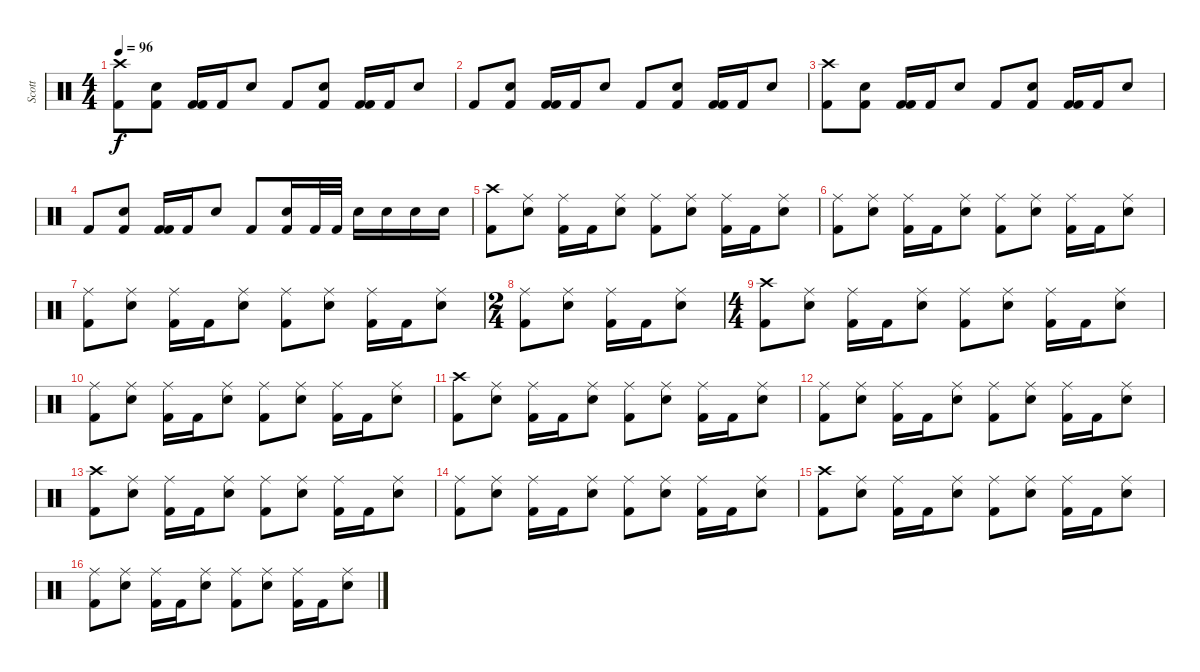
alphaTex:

\track ("Scott" "Scott") {instrument percussion}
\staff {score}
\articulation defaults
\ts (4 4)
\tempo 96
\clef neutral
\ks c
("Kick (hit) 2" "Crash high (hit)").8{dy f} ("Kick (hit) 2" "Snare (hit) 2").8 ("Kick (hit) 2" "Kick (hit) 2").16 "Kick (hit) 2".16 "Snare (hit) 2".8 "Kick (hit) 2".8 ("Kick (hit) 2" "Snare (hit) 2").8 ("Kick (hit) 2" "Kick (hit) 2").16 "Kick (hit) 2".16 "Snare (hit) 2".8 |
"Kick (hit) 2".8 ("Kick (hit) 2" "Snare (hit) 2").8 ("Kick (hit) 2" "Kick (hit) 2").16 "Kick (hit) 2".16 "Snare (hit) 2".8 "Kick (hit) 2".8 ("Kick (hit) 2" "Snare (hit) 2").8 ("Kick (hit) 2" "Kick (hit) 2").16 "Kick (hit) 2".16 "Snare (hit) 2".8 |
("Kick (hit) 2" "Crash high (hit)").8 ("Kick (hit) 2" "Snare (hit) 2").8 ("Kick (hit) 2" "Kick (hit) 2").16 "Kick (hit) 2".16 "Snare (hit) 2".8 "Kick (hit) 2".8 ("Kick (hit) 2" "Snare (hit) 2").8 ("Kick (hit) 2" "Kick (hit) 2").16 "Kick (hit) 2".16 "Snare (hit) 2".8 |
"Kick (hit) 2".8 ("Kick (hit) 2" "Snare (hit) 2").8 ("Kick (hit) 2" "Kick (hit) 2").16 "Kick (hit) 2".16 "Snare (hit) 2".8 "Kick (hit) 2".8 ("Kick (hit) 2" "Snare (hit) 2").16 "Kick (hit) 2".32 "Kick (hit) 2".32 "Snare (hit) 2".16 "Snare (hit) 2".16 "Snare (hit) 2".16 "Snare (hit) 2".16 |
("Kick (hit) 2" "Crash high (hit)").8 ("Ride (middle)" "Snare (hit) 2").8 ("Ride (middle)" "Kick (hit) 2").16 "Kick (hit) 2".16 ("Snare (hit) 2" "Ride (middle)").8 ("Kick (hit) 2" "Ride (middle)").8 ("Ride (middle)" "Snare (hit) 2").8 ("Ride (middle)" "Kick (hit) 2").16 "Kick (hit) 2".16 ("Snare (hit) 2" "Ride (middle)").8 |
("Kick (hit) 2" "Ride (middle)").8 ("Ride (middle)" "Snare (hit) 2").8 ("Ride (middle)" "Kick (hit) 2").16 "Kick (hit) 2".16 ("Snare (hit) 2" "Ride (middle)").8 ("Kick (hit) 2" "Ride (middle)").8 ("Ride (middle)" "Snare (hit) 2").8 ("Ride (middle)" "Kick (hit) 2").16 "Kick (hit) 2".16 ("Snare (hit) 2" "Ride (middle)").8 |
("Kick (hit) 2" "Ride (middle)").8 ("Ride (middle)" "Snare (hit) 2").8 ("Ride (middle)" "Kick (hit) 2").16 "Kick (hit) 2".16 ("Snare (hit) 2" "Ride (middle)").8 ("Kick (hit) 2" "Ride (middle)").8 ("Ride (middle)" "Snare (hit) 2").8 ("Ride (middle)" "Kick (hit) 2").16 "Kick (hit) 2".16 ("Snare (hit) 2" "Ride (middle)").8 |
\ts (2 4)
("Kick (hit) 2" "Ride (middle)").8 ("Ride (middle)" "Snare (hit) 2").8 ("Ride (middle)" "Kick (hit) 2").16 "Kick (hit) 2".16 ("Snare (hit) 2" "Ride (middle)").8 |
\ts (4 4)
("Kick (hit) 2" "Crash high (hit)").8 ("Ride (middle)" "Snare (hit) 2").8 ("Ride (middle)" "Kick (hit) 2").16 "Kick (hit) 2".16 ("Snare (hit) 2" "Ride (middle)").8 ("Kick (hit) 2" "Ride (middle)").8 ("Ride (middle)" "Snare (hit) 2").8 ("Ride (middle)" "Kick (hit) 2").16 "Kick (hit) 2".16 ("Snare (hit) 2" "Ride (middle)").8 |
("Kick (hit) 2" "Ride (middle)").8 ("Ride (middle)" "Snare (hit) 2").8 ("Ride (middle)" "Kick (hit) 2").16 "Kick (hit) 2".16 ("Snare (hit) 2" "Ride (middle)").8 ("Kick (hit) 2" "Ride (middle)").8 ("Ride (middle)" "Snare (hit) 2").8 ("Ride (middle)" "Kick (hit) 2").16 "Kick (hit) 2".16 ("Snare (hit) 2" "Ride (middle)").8 |
("Kick (hit) 2" "Crash high (hit)").8 ("Ride (middle)" "Snare (hit) 2").8 ("Ride (middle)" "Kick (hit) 2").16 "Kick (hit) 2".16 ("Snare (hit) 2" "Ride (middle)").8 ("Kick (hit) 2" "Ride (middle)").8 ("Ride (middle)" "Snare (hit) 2").8 ("Ride (middle)" "Kick (hit) 2").16 "Kick (hit) 2".16 ("Snare (hit) 2" "Ride (middle)").8 |
("Kick (hit) 2" "Ride (middle)").8 ("Ride (middle)" "Snare (hit) 2").8 ("Ride (middle)" "Kick (hit) 2").16 "Kick (hit) 2".16 ("Snare (hit) 2" "Ride (middle)").8 ("Kick (hit) 2" "Ride (middle)").8 ("Ride (middle)" "Snare (hit) 2").8 ("Ride (middle)" "Kick (hit) 2").16 "Kick (hit) 2".16 ("Snare (hit) 2" "Ride (middle)").8 |
("Kick (hit) 2" "Crash high (hit)").8 ("Ride (middle)" "Snare (hit) 2").8 ("Ride (middle)" "Kick (hit) 2").16 "Kick (hit) 2".16 ("Snare (hit) 2" "Ride (middle)").8 ("Kick (hit) 2" "Ride (middle)").8 ("Ride (middle)" "Snare (hit) 2").8 ("Ride (middle)" "Kick (hit) 2").16 "Kick (hit) 2".16 ("Snare (hit) 2" "Ride (middle)").8 |
("Kick (hit) 2" "Ride (middle)").8 ("Ride (middle)" "Snare (hit) 2").8 ("Ride (middle)" "Kick (hit) 2").16 "Kick (hit) 2".16 ("Snare (hit) 2" "Ride (middle)").8 ("Kick (hit) 2" "Ride (middle)").8 ("Ride (middle)" "Snare (hit) 2").8 ("Ride (middle)" "Kick (hit) 2").16 "Kick (hit) 2".16 ("Snare (hit) 2" "Ride (middle)").8 |
("Kick (hit) 2" "Crash high (hit)").8 ("Ride (middle)" "Snare (hit) 2").8 ("Ride (middle)" "Kick (hit) 2").16 "Kick (hit) 2".16 ("Snare (hit) 2" "Ride (middle)").8 ("Kick (hit) 2" "Ride (middle)").8 ("Ride (middle)" "Snare (hit) 2").8 ("Ride (middle)" "Kick (hit) 2").16 "Kick (hit) 2".16 ("Snare (hit) 2" "Ride (middle)").8 |
("Kick (hit) 2" "Ride (middle)").8 ("Ride (middle)" "Snare (hit) 2").8 ("Ride (middle)" "Kick (hit) 2").16 "Kick (hit) 2".16 ("Snare (hit) 2" "Ride (middle)").8 ("Kick (hit) 2" "Ride (middle)").8 ("Ride (middle)" "Snare (hit) 2").8 ("Ride (middle)" "Kick (hit) 2").16 "Kick (hit) 2".16 ("Snare (hit) 2" "Ride (middle)").8
